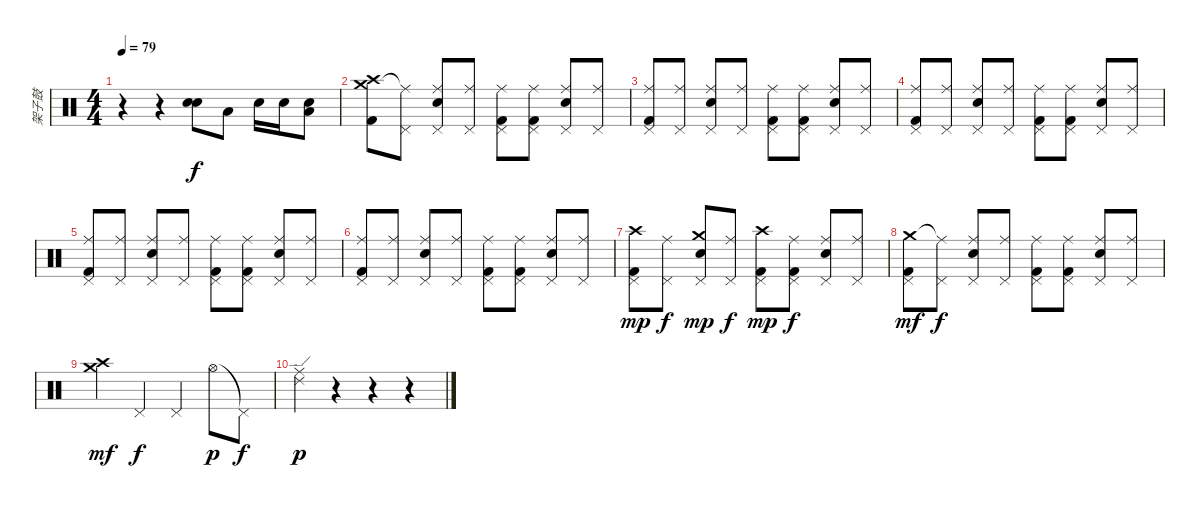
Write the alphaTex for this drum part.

\track ("架子鼓" "架子鼓") {instrument percussion}
\staff {score}
\articulation defaults
\ts (4 4)
\tempo 79
\clef neutral
\ks c
r.4{dy f} r.4 ("Electric Snare (hit)" "Electric Snare (hit)").8 "Low Tom (hit)".8 "Electric Snare (hit)".16 "Electric Snare (hit)".16 ("Low Tom (hit)" "Electric Snare (hit)").8 |
("Crash high (hit)" "Crash medium (hit)" "Kick (hit) 2").8 ("Pedal Hi-Hat (hit)" "Ride (middle)"{t}).8 ("Pedal Hi-Hat (hit)" "Ride (middle)" "Electric Snare (hit)").8 ("Pedal Hi-Hat (hit)" "Ride (middle)").8 ("Pedal Hi-Hat (hit)" "Ride (middle)" "Kick (hit) 2").8 ("Pedal Hi-Hat (hit)" "Ride (middle)" "Kick (hit) 2").8 ("Pedal Hi-Hat (hit)" "Ride (middle)" "Electric Snare (hit)").8 ("Pedal Hi-Hat (hit)" "Ride (middle)").8 |
("Pedal Hi-Hat (hit)" "Ride (middle)" "Kick (hit) 2").8 ("Pedal Hi-Hat (hit)" "Ride (middle)").8 ("Pedal Hi-Hat (hit)" "Ride (middle)" "Electric Snare (hit)").8 ("Pedal Hi-Hat (hit)" "Ride (middle)").8 ("Pedal Hi-Hat (hit)" "Ride (middle)" "Kick (hit) 2").8 ("Pedal Hi-Hat (hit)" "Ride (middle)" "Kick (hit) 2").8 ("Pedal Hi-Hat (hit)" "Ride (middle)" "Electric Snare (hit)").8 ("Pedal Hi-Hat (hit)" "Ride (middle)").8 |
("Pedal Hi-Hat (hit)" "Ride (middle)" "Kick (hit) 2").8 ("Pedal Hi-Hat (hit)" "Ride (middle)").8 ("Pedal Hi-Hat (hit)" "Ride (middle)" "Electric Snare (hit)").8 ("Pedal Hi-Hat (hit)" "Ride (middle)").8 ("Pedal Hi-Hat (hit)" "Ride (middle)" "Kick (hit) 2").8 ("Pedal Hi-Hat (hit)" "Ride (middle)" "Kick (hit) 2").8 ("Pedal Hi-Hat (hit)" "Ride (middle)" "Electric Snare (hit)").8 ("Pedal Hi-Hat (hit)" "Ride (middle)").8 |
("Pedal Hi-Hat (hit)" "Ride (middle)" "Kick (hit) 2").8 ("Pedal Hi-Hat (hit)" "Ride (middle)").8 ("Pedal Hi-Hat (hit)" "Ride (middle)" "Electric Snare (hit)").8 ("Pedal Hi-Hat (hit)" "Ride (middle)").8 ("Pedal Hi-Hat (hit)" "Ride (middle)" "Kick (hit) 2").8 ("Pedal Hi-Hat (hit)" "Ride (middle)" "Kick (hit) 2").8 ("Pedal Hi-Hat (hit)" "Ride (middle)" "Electric Snare (hit)").8 ("Pedal Hi-Hat (hit)" "Ride (middle)").8 |
("Pedal Hi-Hat (hit)" "Ride (middle)" "Kick (hit) 2").8 ("Pedal Hi-Hat (hit)" "Ride (middle)").8 ("Pedal Hi-Hat (hit)" "Ride (middle)" "Electric Snare (hit)").8 ("Pedal Hi-Hat (hit)" "Ride (middle)").8 ("Pedal Hi-Hat (hit)" "Ride (middle)" "Kick (hit) 2").8 ("Pedal Hi-Hat (hit)" "Ride (middle)" "Kick (hit) 2").8 ("Pedal Hi-Hat (hit)" "Ride (middle)" "Electric Snare (hit)").8 ("Pedal Hi-Hat (hit)" "Ride (middle)").8 |
("Crash high (hit)" "Pedal Hi-Hat (hit)" "Kick (hit) 2").8{dy mp} ("Pedal Hi-Hat (hit)" "Ride (middle)").8{dy f} ("Crash medium (hit)" "Pedal Hi-Hat (hit)" "Electric Snare (hit)").8{dy mp} ("Pedal Hi-Hat (hit)" "Ride (middle)").8{dy f} ("Crash high (hit)" "Pedal Hi-Hat (hit)" "Kick (hit) 2").8{dy mp} ("Pedal Hi-Hat (hit)" "Ride (middle)" "Kick (hit) 2").8{dy f} ("Pedal Hi-Hat (hit)" "Ride (middle)" "Electric Snare (hit)").8 ("Pedal Hi-Hat (hit)" "Ride (middle)").8 |
("Pedal Hi-Hat (hit)" "Crash medium (hit)" "Kick (hit) 2").8{dy mf} ("Pedal Hi-Hat (hit)" "Ride (middle)"{t}).8{dy f} ("Pedal Hi-Hat (hit)" "Ride (middle)" "Electric Snare (hit)").8 ("Pedal Hi-Hat (hit)" "Ride (middle)").8 ("Pedal Hi-Hat (hit)" "Ride (middle)" "Kick (hit) 2").8 ("Pedal Hi-Hat (hit)" "Ride (middle)" "Kick (hit) 2").8 ("Pedal Hi-Hat (hit)" "Ride (middle)" "Electric Snare (hit)").8 ("Pedal Hi-Hat (hit)" "Ride (middle)").8 |
("Crash medium (hit)" "Crash high (hit)").4{dy mf} "Pedal Hi-Hat (hit)".4{dy f} "Pedal Hi-Hat (hit)".4 "Hi-Hat (open)".8{dy p} "Pedal Hi-Hat (hit)"{t}.8{dy f} |
("Ride (middle)" "Ride (edge) 2").4{dy p} r.4 r.4 r.4
